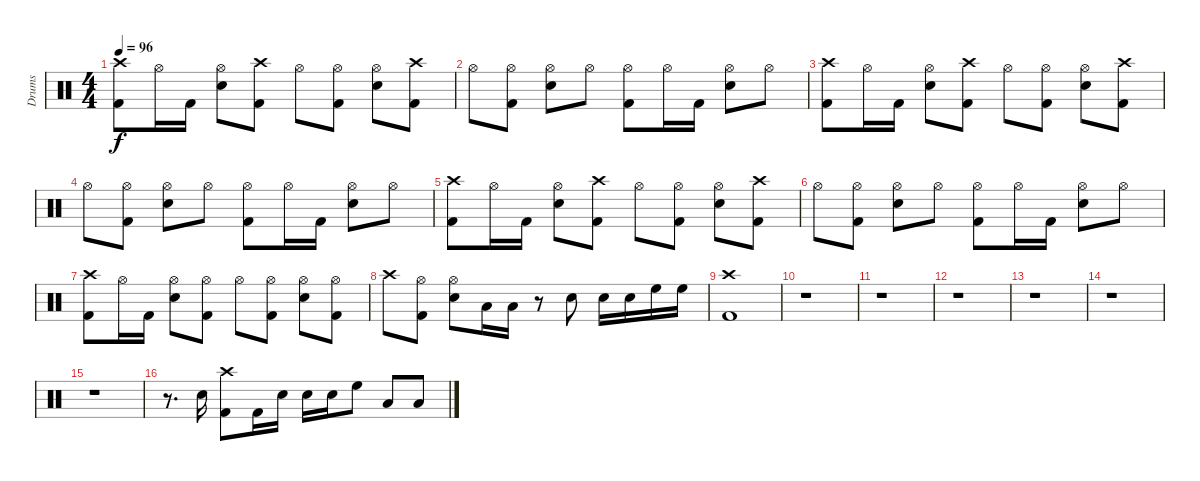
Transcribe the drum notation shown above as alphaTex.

\track ("Drums" "Drums") {instrument percussion}
\staff {score}
\articulation defaults
\ts (4 4)
\tempo 96
\clef neutral
\ks c
("Crash high (hit)" "Kick (hit) 2").8{dy f} "Hi-Hat (open)".16 "Kick (hit) 2".16 ("Hi-Hat (open)" "Snare (hit) 2").8 ("Crash high (hit)" "Kick (hit) 2").8 "Hi-Hat (open)".8 ("Hi-Hat (open)" "Kick (hit) 2").8 ("Hi-Hat (open)" "Snare (hit) 2").8 ("Crash high (hit)" "Kick (hit) 2").8 |
"Hi-Hat (open)".8 ("Hi-Hat (open)" "Kick (hit) 2").8 ("Hi-Hat (open)" "Snare (hit) 2").8 "Hi-Hat (open)".8 ("Hi-Hat (open)" "Kick (hit) 2").8 "Hi-Hat (open)".16 "Kick (hit) 2".16 ("Hi-Hat (open)" "Snare (hit) 2").8 "Hi-Hat (open)".8 |
("Crash high (hit)" "Kick (hit) 2").8 "Hi-Hat (open)".16 "Kick (hit) 2".16 ("Hi-Hat (open)" "Snare (hit) 2").8 ("Crash high (hit)" "Kick (hit) 2").8 "Hi-Hat (open)".8 ("Hi-Hat (open)" "Kick (hit) 2").8 ("Hi-Hat (open)" "Snare (hit) 2").8 ("Crash high (hit)" "Kick (hit) 2").8 |
"Hi-Hat (open)".8 ("Hi-Hat (open)" "Kick (hit) 2").8 ("Hi-Hat (open)" "Snare (hit) 2").8 "Hi-Hat (open)".8 ("Hi-Hat (open)" "Kick (hit) 2").8 "Hi-Hat (open)".16 "Kick (hit) 2".16 ("Hi-Hat (open)" "Snare (hit) 2").8 "Hi-Hat (open)".8 |
("Crash high (hit)" "Kick (hit) 2").8 "Hi-Hat (open)".16 "Kick (hit) 2".16 ("Hi-Hat (open)" "Snare (hit) 2").8 ("Crash high (hit)" "Kick (hit) 2").8 "Hi-Hat (open)".8 ("Hi-Hat (open)" "Kick (hit) 2").8 ("Hi-Hat (open)" "Snare (hit) 2").8 ("Crash high (hit)" "Kick (hit) 2").8 |
"Hi-Hat (open)".8 ("Hi-Hat (open)" "Kick (hit) 2").8 ("Hi-Hat (open)" "Snare (hit) 2").8 "Hi-Hat (open)".8 ("Hi-Hat (open)" "Kick (hit) 2").8 "Hi-Hat (open)".16 "Kick (hit) 2".16 ("Hi-Hat (open)" "Snare (hit) 2").8 "Hi-Hat (open)".8 |
("Crash high (hit)" "Kick (hit) 2").8 "Hi-Hat (open)".16 "Kick (hit) 2".16 ("Hi-Hat (open)" "Snare (hit) 2").8 ("Hi-Hat (open)" "Kick (hit) 2").8 "Hi-Hat (open)".8 ("Hi-Hat (open)" "Kick (hit) 2").8 ("Hi-Hat (open)" "Snare (hit) 2").8 ("Hi-Hat (open)" "Kick (hit) 2").8 |
"Crash high (hit)".8 ("Hi-Hat (open)" "Kick (hit) 2").8 ("Hi-Hat (open)" "Snare (hit) 2").8 "Low Tom (hit)".16 "Low Tom (hit)".16 r.8 "Snare (hit) 2".8 "Snare (hit) 2".16 "Snare (hit) 2".16 "High Floor Tom (hit)".16 "High Floor Tom (hit)".16 |
("Crash high (hit)" "Kick (hit) 2").1 |
r.1 |
r.1 |
r.1 |
r.1 |
r.1 |
r.1 |
r.8{d} "Snare (hit) 2".16 ("Crash high (hit)" "Kick (hit) 2").8 "Kick (hit) 2".16 "Snare (hit) 2".16 "Snare (hit) 2".16 "Snare (hit) 2".16 "High Floor Tom (hit)".8 "Low Tom (hit)".8 "Low Tom (hit)".8
